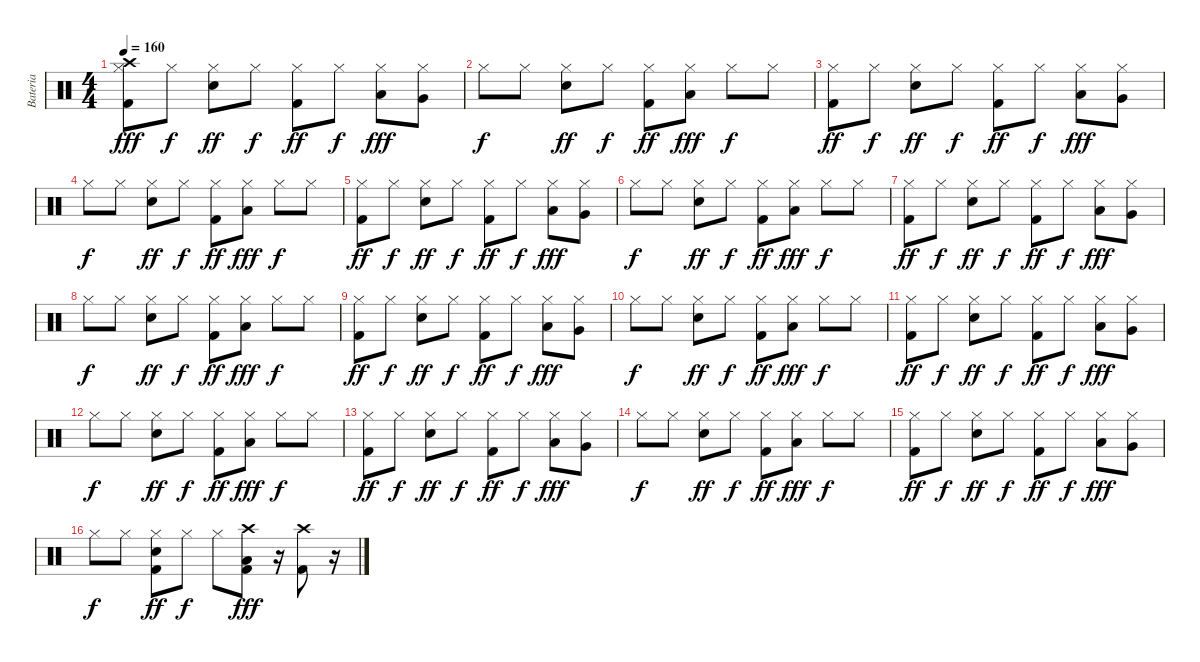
\track ("Bateria" "Bateria") {instrument percussion}
\staff {score}
\articulation defaults
\ts (4 4)
\tempo 160
\clef neutral
\ks c
("Kick (hit) 2" "Crash high (hit)" "Hi-Hat (closed)").8{dy fff} "Hi-Hat (closed)".8{dy f} ("Hi-Hat (closed)" "Snare (hit) 2").8{dy ff} "Hi-Hat (closed)".8{dy f} ("Kick (hit) 2" "Hi-Hat (closed)").8{dy ff} "Hi-Hat (closed)".8{dy f} ("Hi-Hat (closed)" "Low Tom (hit)").8{dy fff} ("Very Low Tom (hit)" "Hi-Hat (closed)").8 |
"Hi-Hat (closed)".8{dy f} "Hi-Hat (closed)".8 ("Hi-Hat (closed)" "Snare (hit) 2").8{dy ff} "Hi-Hat (closed)".8{dy f} ("Kick (hit) 2" "Hi-Hat (closed)").8{dy ff} ("Low Tom (hit)" "Hi-Hat (closed)").8{dy fff} "Hi-Hat (closed)".8{dy f} "Hi-Hat (closed)".8 |
("Kick (hit) 2" "Hi-Hat (closed)").8{dy ff} "Hi-Hat (closed)".8{dy f} ("Hi-Hat (closed)" "Snare (hit) 2").8{dy ff} "Hi-Hat (closed)".8{dy f} ("Kick (hit) 2" "Hi-Hat (closed)").8{dy ff} "Hi-Hat (closed)".8{dy f} ("Hi-Hat (closed)" "Low Tom (hit)").8{dy fff} ("Very Low Tom (hit)" "Hi-Hat (closed)").8 |
"Hi-Hat (closed)".8{dy f} "Hi-Hat (closed)".8 ("Hi-Hat (closed)" "Snare (hit) 2").8{dy ff} "Hi-Hat (closed)".8{dy f} ("Kick (hit) 2" "Hi-Hat (closed)").8{dy ff} ("Low Tom (hit)" "Hi-Hat (closed)").8{dy fff} "Hi-Hat (closed)".8{dy f} "Hi-Hat (closed)".8 |
("Kick (hit) 2" "Hi-Hat (closed)").8{dy ff} "Hi-Hat (closed)".8{dy f} ("Hi-Hat (closed)" "Snare (hit) 2").8{dy ff} "Hi-Hat (closed)".8{dy f} ("Kick (hit) 2" "Hi-Hat (closed)").8{dy ff} "Hi-Hat (closed)".8{dy f} ("Hi-Hat (closed)" "Low Tom (hit)").8{dy fff} ("Very Low Tom (hit)" "Hi-Hat (closed)").8 |
"Hi-Hat (closed)".8{dy f} "Hi-Hat (closed)".8 ("Hi-Hat (closed)" "Snare (hit) 2").8{dy ff} "Hi-Hat (closed)".8{dy f} ("Kick (hit) 2" "Hi-Hat (closed)").8{dy ff} ("Low Tom (hit)" "Hi-Hat (closed)").8{dy fff} "Hi-Hat (closed)".8{dy f} "Hi-Hat (closed)".8 |
("Kick (hit) 2" "Hi-Hat (closed)").8{dy ff} "Hi-Hat (closed)".8{dy f} ("Hi-Hat (closed)" "Snare (hit) 2").8{dy ff} "Hi-Hat (closed)".8{dy f} ("Kick (hit) 2" "Hi-Hat (closed)").8{dy ff} "Hi-Hat (closed)".8{dy f} ("Hi-Hat (closed)" "Low Tom (hit)").8{dy fff} ("Very Low Tom (hit)" "Hi-Hat (closed)").8 |
"Hi-Hat (closed)".8{dy f} "Hi-Hat (closed)".8 ("Hi-Hat (closed)" "Snare (hit) 2").8{dy ff} "Hi-Hat (closed)".8{dy f} ("Kick (hit) 2" "Hi-Hat (closed)").8{dy ff} ("Low Tom (hit)" "Hi-Hat (closed)").8{dy fff} "Hi-Hat (closed)".8{dy f} "Hi-Hat (closed)".8 |
("Kick (hit) 2" "Hi-Hat (closed)").8{dy ff} "Hi-Hat (closed)".8{dy f} ("Hi-Hat (closed)" "Snare (hit) 2").8{dy ff} "Hi-Hat (closed)".8{dy f} ("Kick (hit) 2" "Hi-Hat (closed)").8{dy ff} "Hi-Hat (closed)".8{dy f} ("Hi-Hat (closed)" "Low Tom (hit)").8{dy fff} ("Very Low Tom (hit)" "Hi-Hat (closed)").8 |
"Hi-Hat (closed)".8{dy f} "Hi-Hat (closed)".8 ("Hi-Hat (closed)" "Snare (hit) 2").8{dy ff} "Hi-Hat (closed)".8{dy f} ("Kick (hit) 2" "Hi-Hat (closed)").8{dy ff} ("Low Tom (hit)" "Hi-Hat (closed)").8{dy fff} "Hi-Hat (closed)".8{dy f} "Hi-Hat (closed)".8 |
("Kick (hit) 2" "Hi-Hat (closed)").8{dy ff} "Hi-Hat (closed)".8{dy f} ("Hi-Hat (closed)" "Snare (hit) 2").8{dy ff} "Hi-Hat (closed)".8{dy f} ("Kick (hit) 2" "Hi-Hat (closed)").8{dy ff} "Hi-Hat (closed)".8{dy f} ("Hi-Hat (closed)" "Low Tom (hit)").8{dy fff} ("Very Low Tom (hit)" "Hi-Hat (closed)").8 |
"Hi-Hat (closed)".8{dy f} "Hi-Hat (closed)".8 ("Hi-Hat (closed)" "Snare (hit) 2").8{dy ff} "Hi-Hat (closed)".8{dy f} ("Kick (hit) 2" "Hi-Hat (closed)").8{dy ff} ("Low Tom (hit)" "Hi-Hat (closed)").8{dy fff} "Hi-Hat (closed)".8{dy f} "Hi-Hat (closed)".8 |
("Kick (hit) 2" "Hi-Hat (closed)").8{dy ff} "Hi-Hat (closed)".8{dy f} ("Hi-Hat (closed)" "Snare (hit) 2").8{dy ff} "Hi-Hat (closed)".8{dy f} ("Kick (hit) 2" "Hi-Hat (closed)").8{dy ff} "Hi-Hat (closed)".8{dy f} ("Hi-Hat (closed)" "Low Tom (hit)").8{dy fff} ("Very Low Tom (hit)" "Hi-Hat (closed)").8 |
"Hi-Hat (closed)".8{dy f} "Hi-Hat (closed)".8 ("Hi-Hat (closed)" "Snare (hit) 2").8{dy ff} "Hi-Hat (closed)".8{dy f} ("Kick (hit) 2" "Hi-Hat (closed)").8{dy ff} ("Low Tom (hit)" "Hi-Hat (closed)").8{dy fff} "Hi-Hat (closed)".8{dy f} "Hi-Hat (closed)".8 |
("Kick (hit) 2" "Hi-Hat (closed)").8{dy ff} "Hi-Hat (closed)".8{dy f} ("Hi-Hat (closed)" "Snare (hit) 2").8{dy ff} "Hi-Hat (closed)".8{dy f} ("Kick (hit) 2" "Hi-Hat (closed)").8{dy ff} "Hi-Hat (closed)".8{dy f} ("Hi-Hat (closed)" "Low Tom (hit)").8{dy fff} ("Very Low Tom (hit)" "Hi-Hat (closed)").8 |
"Hi-Hat (closed)".8{dy f} "Hi-Hat (closed)".8 ("Kick (hit) 2" "Hi-Hat (closed)" "Snare (hit) 2").8{dy ff} "Hi-Hat (closed)".8{dy f} "Hi-Hat (closed)".8 ("Low Tom (hit)" "Kick (hit) 2" "Crash high (hit)").8{dy fff} r.16 ("Kick (hit) 2" "Crash high (hit)").8 r.16
